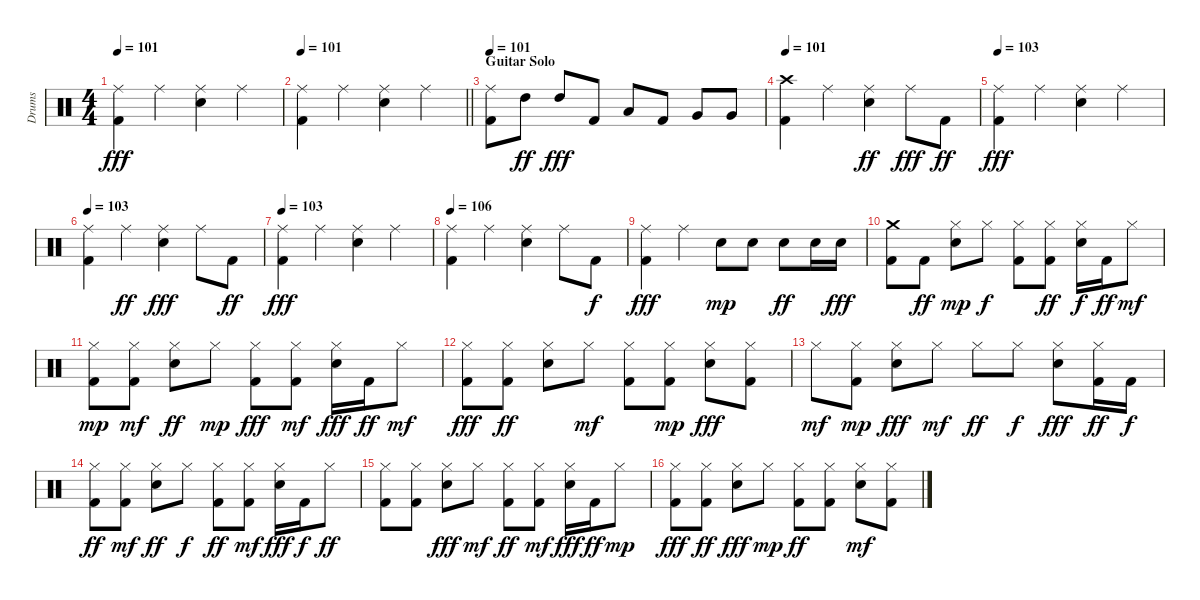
\track ("Drums" "Drums") {instrument percussion}
\staff {score}
\articulation defaults
\ts (4 4)
\tempo 101
\clef neutral
\ks c
("Ride (middle)" "Kick (hit) 2").4{dy fff} "Ride (middle)".4 ("Snare (hit) 2" "Ride (middle)").4 "Ride (middle)".4 |
\tempo 101
\barLineRight lightlight
("Ride (middle)" "Kick (hit) 2").4 "Ride (middle)".4 ("Ride (middle)" "Snare (hit) 2").4 "Ride (middle)".4 |
\section ("" "Guitar Solo")
\tempo 101
("Ride (middle)" "Kick (hit) 2").8 "High Tom (hit)".8{dy ff} "High Tom (hit)".8{dy fff} "Kick (hit) 2".8 "Low Tom (hit)".8 "Kick (hit) 2".8 "Very Low Tom (hit)".8 "Very Low Tom (hit)".8 |
\tempo 101
("Crash high (hit)" "Kick (hit) 2").4 "Ride (middle)".4 ("Ride (middle)" "Snare (hit) 2").4{dy ff} "Ride (middle)".8{dy fff} "Kick (hit) 2".8{dy ff} |
\tempo 103
("Ride (middle)" "Kick (hit) 2").4{dy fff} "Ride (middle)".4 ("Ride (middle)" "Snare (hit) 2").4 "Ride (middle)".4 |
\tempo 103
("Ride (middle)" "Kick (hit) 2").4 "Ride (middle)".4{dy ff} ("Ride (middle)" "Snare (hit) 2").4{dy fff} "Ride (middle)".8 "Kick (hit) 2".8{dy ff} |
\tempo 103
("Ride (middle)" "Kick (hit) 2").4{dy fff} "Ride (middle)".4 ("Snare (hit) 2" "Ride (middle)").4 "Ride (middle)".4 |
\tempo 106
("Ride (middle)" "Kick (hit) 2").4 "Ride (middle)".4 ("Snare (hit) 2" "Ride (middle)").4 "Ride (middle)".8 "Kick (hit) 2".8{dy f} |
("Ride (middle)" "Kick (hit) 2").4{dy fff} "Ride (middle)".4 "Snare (hit) 2".8{dy mp} "Snare (hit) 2".8 "Snare (hit) 2".8{dy ff} "Snare (hit) 2".16 "Snare (hit) 2".16{dy fff} |
("Kick (hit) 2" "Crash medium (hit)").8 "Kick (hit) 2".8{dy ff} ("Snare (hit) 2" "Hi-Hat (closed)").8{dy mp} "Hi-Hat (closed)".8{dy f} ("Hi-Hat (closed)" "Kick (hit) 2").8 ("Hi-Hat (closed)" "Kick (hit) 2").8{dy ff} ("Hi-Hat (closed)" "Snare (hit) 2").16{dy f} "Kick (hit) 2".16{dy ff} "Hi-Hat (closed)".8{dy mf} |
("Kick (hit) 2" "Hi-Hat (closed)").8{dy mp} ("Kick (hit) 2" "Hi-Hat (closed)").8{dy mf} ("Snare (hit) 2" "Hi-Hat (closed)").8{dy ff} "Hi-Hat (closed)".8{dy mp} ("Hi-Hat (closed)" "Kick (hit) 2").8{dy fff} ("Kick (hit) 2" "Hi-Hat (closed)").8{dy mf} ("Hi-Hat (closed)" "Snare (hit) 2").16{dy fff} "Kick (hit) 2".16{dy ff} "Hi-Hat (closed)".8{dy mf} |
("Kick (hit) 2" "Hi-Hat (closed)").8{dy fff} ("Hi-Hat (closed)" "Kick (hit) 2").8{dy ff} ("Snare (hit) 2" "Hi-Hat (closed)").8 "Hi-Hat (closed)".8{dy mf} ("Hi-Hat (closed)" "Kick (hit) 2").8 ("Hi-Hat (closed)" "Kick (hit) 2").8{dy mp} ("Hi-Hat (closed)" "Snare (hit) 2").8{dy fff} ("Hi-Hat (closed)" "Kick (hit) 2").8 |
"Hi-Hat (closed)".8{dy mf} ("Kick (hit) 2" "Hi-Hat (closed)").8{dy mp} ("Hi-Hat (closed)" "Snare (hit) 2").8{dy fff} "Hi-Hat (closed)".8{dy mf} "Hi-Hat (closed)".8{dy ff} "Hi-Hat (closed)".8{dy f} ("Snare (hit) 2" "Hi-Hat (closed)").8{dy fff} ("Kick (hit) 2" "Hi-Hat (closed)").16{dy ff} "Kick (hit) 2".16{dy f} |
("Hi-Hat (closed)" "Kick (hit) 2").8{dy ff} ("Kick (hit) 2" "Hi-Hat (closed)").8{dy mf} ("Hi-Hat (closed)" "Snare (hit) 2").8{dy ff} "Hi-Hat (closed)".8{dy f} ("Hi-Hat (closed)" "Kick (hit) 2").8{dy ff} ("Hi-Hat (closed)" "Kick (hit) 2").8{dy mf} ("Hi-Hat (closed)" "Snare (hit) 2").16{dy fff} "Kick (hit) 2".16{dy f} "Hi-Hat (closed)".8{dy ff} |
("Hi-Hat (closed)" "Kick (hit) 2").8 ("Hi-Hat (closed)" "Kick (hit) 2").8 ("Hi-Hat (closed)" "Snare (hit) 2").8{dy fff} "Hi-Hat (closed)".8{dy mf} ("Hi-Hat (closed)" "Kick (hit) 2").8{dy ff} ("Hi-Hat (closed)" "Kick (hit) 2").8{dy mf} ("Hi-Hat (closed)" "Snare (hit) 2").16{dy fff} "Kick (hit) 2".16{dy ff} "Hi-Hat (closed)".8{dy mp} |
("Hi-Hat (closed)" "Kick (hit) 2").8{dy fff} ("Hi-Hat (closed)" "Kick (hit) 2").8{dy ff} ("Snare (hit) 2" "Hi-Hat (closed)").8{dy fff} "Hi-Hat (closed)".8{dy mp} ("Hi-Hat (closed)" "Kick (hit) 2").8{dy ff} ("Hi-Hat (closed)" "Kick (hit) 2").8 ("Snare (hit) 2" "Hi-Hat (closed)").8{dy mf} ("Kick (hit) 2" "Hi-Hat (closed)").8
